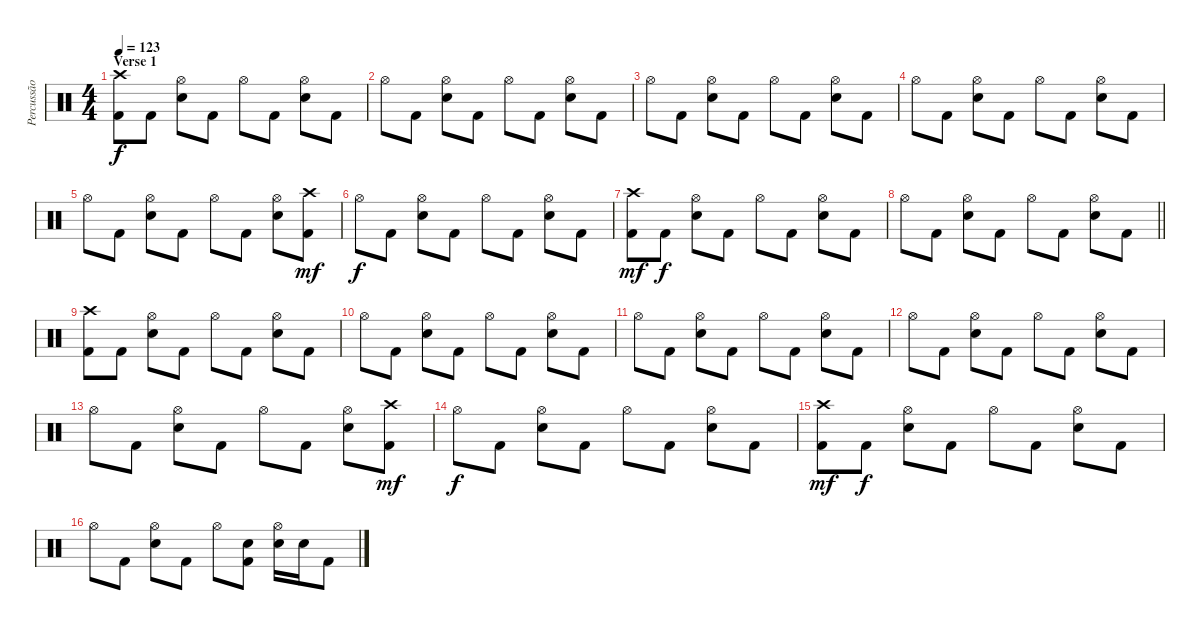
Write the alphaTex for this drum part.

\track ("Percussão" "Percussão") {instrument percussion}
\staff {score}
\articulation defaults
\ts (4 4)
\section ("" "Verse 1")
\tempo 123
\clef neutral
\ks c
("Crash high (hit)" "Kick (hit) 2").8{dy f} "Kick (hit) 2".8 ("Hi-Hat (open)" "Snare (hit) 2").8 "Kick (hit) 2".8 "Hi-Hat (open)".8 "Kick (hit) 2".8 ("Hi-Hat (open)" "Snare (hit) 2").8 "Kick (hit) 2".8 |
"Hi-Hat (open)".8 "Kick (hit) 2".8 ("Hi-Hat (open)" "Snare (hit) 2").8 "Kick (hit) 2".8 "Hi-Hat (open)".8 "Kick (hit) 2".8 ("Hi-Hat (open)" "Snare (hit) 2").8 "Kick (hit) 2".8 |
"Hi-Hat (open)".8 "Kick (hit) 2".8 ("Hi-Hat (open)" "Snare (hit) 2").8 "Kick (hit) 2".8 "Hi-Hat (open)".8 "Kick (hit) 2".8 ("Hi-Hat (open)" "Snare (hit) 2").8 "Kick (hit) 2".8 |
"Hi-Hat (open)".8 "Kick (hit) 2".8 ("Hi-Hat (open)" "Snare (hit) 2").8 "Kick (hit) 2".8 "Hi-Hat (open)".8 "Kick (hit) 2".8 ("Hi-Hat (open)" "Snare (hit) 2").8 "Kick (hit) 2".8 |
"Hi-Hat (open)".8 "Kick (hit) 2".8 ("Hi-Hat (open)" "Snare (hit) 2").8 "Kick (hit) 2".8 "Hi-Hat (open)".8 "Kick (hit) 2".8 ("Hi-Hat (open)" "Snare (hit) 2").8 ("Crash high (hit)" "Kick (hit) 2").8{dy mf} |
"Hi-Hat (open)".8{dy f} "Kick (hit) 2".8 ("Hi-Hat (open)" "Snare (hit) 2").8 "Kick (hit) 2".8 "Hi-Hat (open)".8 "Kick (hit) 2".8 ("Hi-Hat (open)" "Snare (hit) 2").8 "Kick (hit) 2".8 |
("Crash high (hit)" "Kick (hit) 2").8{dy mf} "Kick (hit) 2".8{dy f} ("Hi-Hat (open)" "Snare (hit) 2").8 "Kick (hit) 2".8 "Hi-Hat (open)".8 "Kick (hit) 2".8 ("Hi-Hat (open)" "Snare (hit) 2").8 "Kick (hit) 2".8 |
\barLineRight lightlight "Hi-Hat (open)".8 "Kick (hit) 2".8
("Hi-Hat (open)" "Snare (hit) 2").8 "Kick (hit) 2".8 "Hi-Hat (open)".8 "Kick (hit) 2".8 ("Hi-Hat (open)" "Snare (hit) 2").8 "Kick (hit) 2".8 |
("Crash high (hit)" "Kick (hit) 2").8 "Kick (hit) 2".8 ("Hi-Hat (open)" "Snare (hit) 2").8 "Kick (hit) 2".8 "Hi-Hat (open)".8 "Kick (hit) 2".8 ("Hi-Hat (open)" "Snare (hit) 2").8 "Kick (hit) 2".8 |
"Hi-Hat (open)".8 "Kick (hit) 2".8 ("Hi-Hat (open)" "Snare (hit) 2").8 "Kick (hit) 2".8 "Hi-Hat (open)".8 "Kick (hit) 2".8 ("Hi-Hat (open)" "Snare (hit) 2").8 "Kick (hit) 2".8 |
"Hi-Hat (open)".8 "Kick (hit) 2".8 ("Hi-Hat (open)" "Snare (hit) 2").8 "Kick (hit) 2".8 "Hi-Hat (open)".8 "Kick (hit) 2".8 ("Hi-Hat (open)" "Snare (hit) 2").8 "Kick (hit) 2".8 |
"Hi-Hat (open)".8 "Kick (hit) 2".8 ("Hi-Hat (open)" "Snare (hit) 2").8 "Kick (hit) 2".8 "Hi-Hat (open)".8 "Kick (hit) 2".8 ("Hi-Hat (open)" "Snare (hit) 2").8 "Kick (hit) 2".8 |
"Hi-Hat (open)".8 "Kick (hit) 2".8 ("Hi-Hat (open)" "Snare (hit) 2").8 "Kick (hit) 2".8 "Hi-Hat (open)".8 "Kick (hit) 2".8 ("Hi-Hat (open)" "Snare (hit) 2").8 ("Crash high (hit)" "Kick (hit) 2").8{dy mf} |
"Hi-Hat (open)".8{dy f} "Kick (hit) 2".8 ("Hi-Hat (open)" "Snare (hit) 2").8 "Kick (hit) 2".8 "Hi-Hat (open)".8 "Kick (hit) 2".8 ("Hi-Hat (open)" "Snare (hit) 2").8 "Kick (hit) 2".8 |
("Crash high (hit)" "Kick (hit) 2").8{dy mf} "Kick (hit) 2".8{dy f} ("Hi-Hat (open)" "Snare (hit) 2").8 "Kick (hit) 2".8 "Hi-Hat (open)".8 "Kick (hit) 2".8 ("Hi-Hat (open)" "Snare (hit) 2").8 "Kick (hit) 2".8 |
"Hi-Hat (open)".8 "Kick (hit) 2".8 ("Hi-Hat (open)" "Snare (hit) 2").8 "Kick (hit) 2".8 "Hi-Hat (open)".8 ("Snare (hit) 2" "Kick (hit) 2").8 ("Hi-Hat (open)" "Snare (hit) 2").16 "Snare (hit) 2".16 "Kick (hit) 2".8
